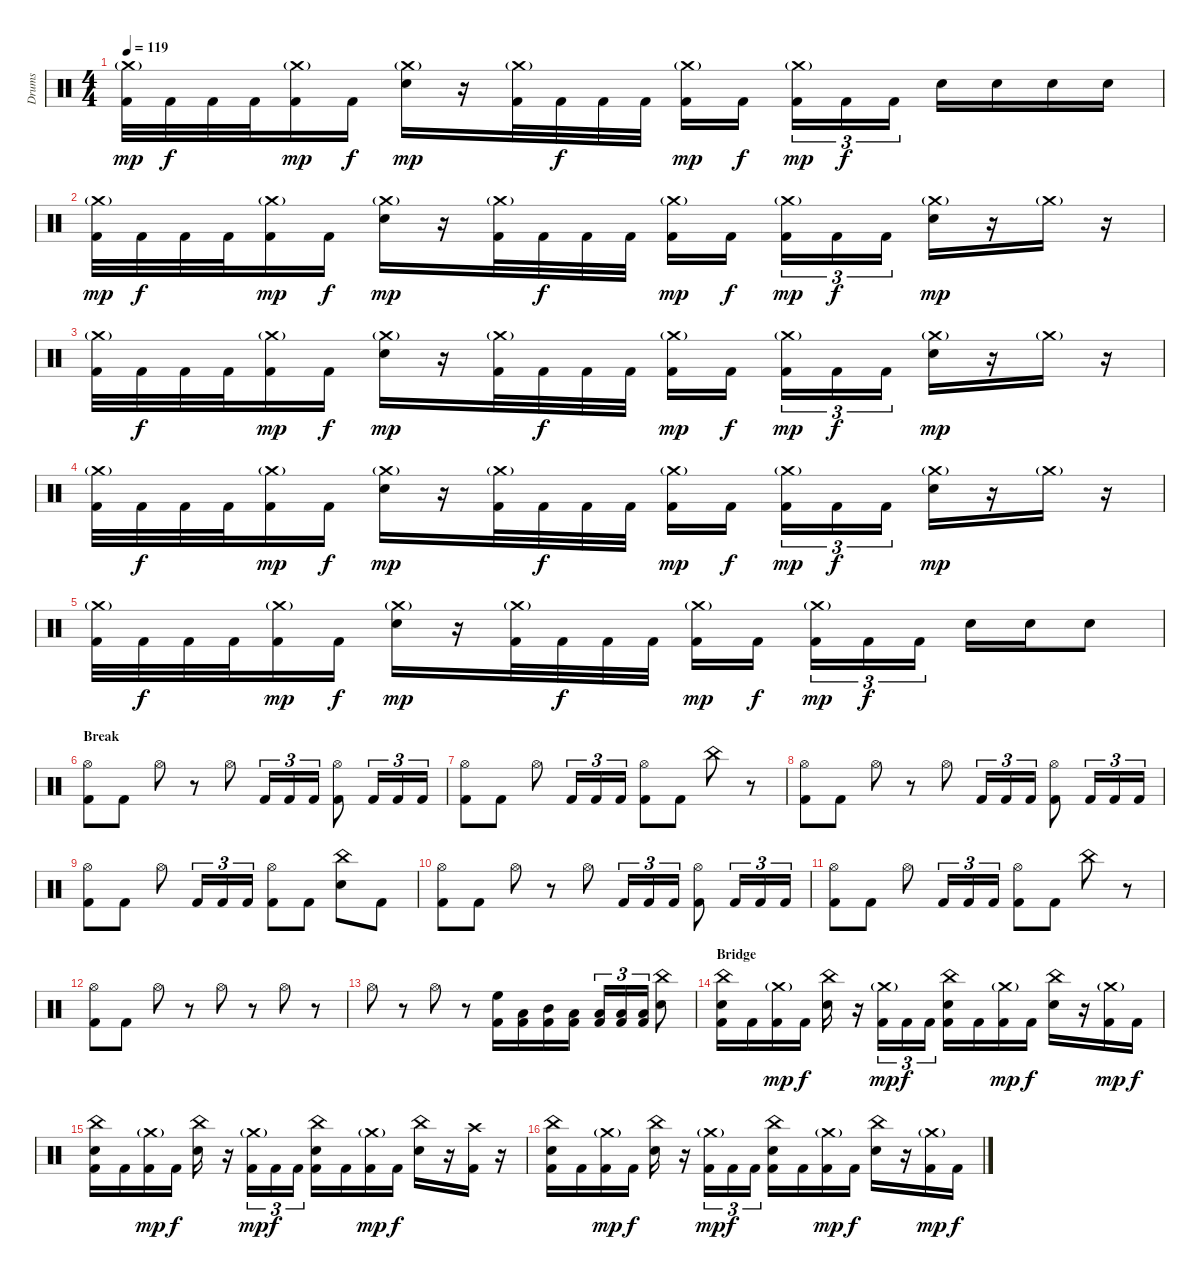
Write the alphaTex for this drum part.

\track ("Drums" "Drums") {instrument percussion}
\staff {score}
\articulation defaults
\ts (4 4)
\tempo 119
\clef neutral
\ks c
("Crash medium (hit)"{g} "Kick (hit) 2").32{dy mp} "Kick (hit) 2".32{dy f} "Kick (hit) 2".32 "Kick (hit) 2".32 ("Crash medium (hit)"{g} "Kick (hit) 2").16{dy mp} "Kick (hit) 2".16{dy f} ("Crash medium (hit)"{g} "Electric Snare (hit)").16{dy mp} r.16 ("Crash medium (hit)"{g} "Kick (hit) 2").32 "Kick (hit) 2".32{dy f} "Kick (hit) 2".32 "Kick (hit) 2".32 ("Crash medium (hit)"{g} "Kick (hit) 2").16{dy mp} "Kick (hit) 2".16{dy f} ("Crash medium (hit)"{g} "Kick (hit) 2").16{tu (3 2) dy mp} "Kick (hit) 2".16{tu (3 2) dy f} "Kick (hit) 2".16{tu (3 2)} "Electric Snare (hit)".16 "Electric Snare (hit)".16 "Electric Snare (hit)".16 "Electric Snare (hit)".16 |
("Crash medium (hit)"{g} "Kick (hit) 2").32{dy mp} "Kick (hit) 2".32{dy f} "Kick (hit) 2".32 "Kick (hit) 2".32 ("Crash medium (hit)"{g} "Kick (hit) 2").16{dy mp} "Kick (hit) 2".16{dy f} ("Crash medium (hit)"{g} "Electric Snare (hit)").16{dy mp} r.16 ("Crash medium (hit)"{g} "Kick (hit) 2").32 "Kick (hit) 2".32{dy f} "Kick (hit) 2".32 "Kick (hit) 2".32 ("Crash medium (hit)"{g} "Kick (hit) 2").16{dy mp} "Kick (hit) 2".16{dy f} ("Crash medium (hit)"{g} "Kick (hit) 2").16{tu (3 2) dy mp} "Kick (hit) 2".16{tu (3 2) dy f} "Kick (hit) 2".16{tu (3 2)} ("Crash medium (hit)"{g} "Electric Snare (hit)").16{dy mp} r.16 "Crash medium (hit)"{g}.16 r.16 |
("Crash medium (hit)"{g} "Kick (hit) 2").32 "Kick (hit) 2".32{dy f} "Kick (hit) 2".32 "Kick (hit) 2".32 ("Crash medium (hit)"{g} "Kick (hit) 2").16{dy mp} "Kick (hit) 2".16{dy f} ("Crash medium (hit)"{g} "Electric Snare (hit)").16{dy mp} r.16 ("Crash medium (hit)"{g} "Kick (hit) 2").32 "Kick (hit) 2".32{dy f} "Kick (hit) 2".32 "Kick (hit) 2".32 ("Crash medium (hit)"{g} "Kick (hit) 2").16{dy mp} "Kick (hit) 2".16{dy f} ("Crash medium (hit)"{g} "Kick (hit) 2").16{tu (3 2) dy mp} "Kick (hit) 2".16{tu (3 2) dy f} "Kick (hit) 2".16{tu (3 2)} ("Crash medium (hit)"{g} "Electric Snare (hit)").16{dy mp} r.16 "Crash medium (hit)"{g}.16 r.16 |
("Crash medium (hit)"{g} "Kick (hit) 2").32 "Kick (hit) 2".32{dy f} "Kick (hit) 2".32 "Kick (hit) 2".32 ("Crash medium (hit)"{g} "Kick (hit) 2").16{dy mp} "Kick (hit) 2".16{dy f} ("Crash medium (hit)"{g} "Electric Snare (hit)").16{dy mp} r.16 ("Crash medium (hit)"{g} "Kick (hit) 2").32 "Kick (hit) 2".32{dy f} "Kick (hit) 2".32 "Kick (hit) 2".32 ("Crash medium (hit)"{g} "Kick (hit) 2").16{dy mp} "Kick (hit) 2".16{dy f} ("Crash medium (hit)"{g} "Kick (hit) 2").16{tu (3 2) dy mp} "Kick (hit) 2".16{tu (3 2) dy f} "Kick (hit) 2".16{tu (3 2)} ("Crash medium (hit)"{g} "Electric Snare (hit)").16{dy mp} r.16 "Crash medium (hit)"{g}.16 r.16 |
("Crash medium (hit)"{g} "Kick (hit) 2").32 "Kick (hit) 2".32{dy f} "Kick (hit) 2".32 "Kick (hit) 2".32 ("Crash medium (hit)"{g} "Kick (hit) 2").16{dy mp} "Kick (hit) 2".16{dy f} ("Crash medium (hit)"{g} "Electric Snare (hit)").16{dy mp} r.16 ("Crash medium (hit)"{g} "Kick (hit) 2").32 "Kick (hit) 2".32{dy f} "Kick (hit) 2".32 "Kick (hit) 2".32 ("Crash medium (hit)"{g} "Kick (hit) 2").16{dy mp} "Kick (hit) 2".16{dy f} ("Crash medium (hit)"{g} "Kick (hit) 2").16{tu (3 2) dy mp} "Kick (hit) 2".16{tu (3 2) dy f} "Kick (hit) 2".16{tu (3 2)} "Electric Snare (hit)".16 "Electric Snare (hit)".16 "Electric Snare (hit)".8 |
\section ("" "Break")
("Hi-Hat (open)" "Kick (hit) 2").8 "Kick (hit) 2".8 "Hi-Hat (open)".8 r.8 "Hi-Hat (open)".8 "Kick (hit) 2".16{tu (3 2)} "Kick (hit) 2".16{tu (3 2)} "Kick (hit) 2".16{tu (3 2)} ("Hi-Hat (open)" "Kick (hit) 2").8 "Kick (hit) 2".16{tu (3 2)} "Kick (hit) 2".16{tu (3 2)} "Kick (hit) 2".16{tu (3 2)} |
("Hi-Hat (open)" "Kick (hit) 2").8 "Kick (hit) 2".8 "Hi-Hat (open)".8 "Kick (hit) 2".16{tu (3 2)} "Kick (hit) 2".16{tu (3 2)} "Kick (hit) 2".16{tu (3 2)} ("Hi-Hat (open)" "Kick (hit) 2").8 "Kick (hit) 2".8 "China (hit)".8 r.8 |
("Hi-Hat (open)" "Kick (hit) 2").8 "Kick (hit) 2".8 "Hi-Hat (open)".8 r.8 "Hi-Hat (open)".8 "Kick (hit) 2".16{tu (3 2)} "Kick (hit) 2".16{tu (3 2)} "Kick (hit) 2".16{tu (3 2)} ("Hi-Hat (open)" "Kick (hit) 2").8 "Kick (hit) 2".16{tu (3 2)} "Kick (hit) 2".16{tu (3 2)} "Kick (hit) 2".16{tu (3 2)} |
("Hi-Hat (open)" "Kick (hit) 2").8 "Kick (hit) 2".8 "Hi-Hat (open)".8 "Kick (hit) 2".16{tu (3 2)} "Kick (hit) 2".16{tu (3 2)} "Kick (hit) 2".16{tu (3 2)} ("Hi-Hat (open)" "Kick (hit) 2").8 "Kick (hit) 2".8 ("China (hit)" "Electric Snare (hit)").8 "Kick (hit) 2".8 |
("Hi-Hat (open)" "Kick (hit) 2").8 "Kick (hit) 2".8 "Hi-Hat (open)".8 r.8 "Hi-Hat (open)".8 "Kick (hit) 2".16{tu (3 2)} "Kick (hit) 2".16{tu (3 2)} "Kick (hit) 2".16{tu (3 2)} ("Hi-Hat (open)" "Kick (hit) 2").8 "Kick (hit) 2".16{tu (3 2)} "Kick (hit) 2".16{tu (3 2)} "Kick (hit) 2".16{tu (3 2)} |
("Hi-Hat (open)" "Kick (hit) 2").8 "Kick (hit) 2".8 "Hi-Hat (open)".8 "Kick (hit) 2".16{tu (3 2)} "Kick (hit) 2".16{tu (3 2)} "Kick (hit) 2".16{tu (3 2)} ("Hi-Hat (open)" "Kick (hit) 2").8 "Kick (hit) 2".8 "China (hit)".8 r.8 |
("Hi-Hat (open)" "Kick (hit) 2").8 "Kick (hit) 2".8 "Hi-Hat (open)".8 r.8 "Hi-Hat (open)".8 r.8 "Hi-Hat (open)".8 r.8 |
"Hi-Hat (open)".8 r.8 "Hi-Hat (open)".8 r.8 ("High Floor Tom (hit)" "Kick (hit) 2").16 ("Low Floor Tom (hit)" "Kick (hit) 2").16 ("Mid Tom (hit)" "Kick (hit) 2").16 ("Low Floor Tom (hit)" "Kick (hit) 2").16 ("Low Tom (hit)" "Kick (hit) 2").16{tu (3 2)} ("Low Floor Tom (hit)" "Kick (hit) 2").16{tu (3 2)} ("Low Tom (hit)" "Kick (hit) 2").16{tu (3 2)} ("China (hit)" "Electric Snare (hit)").8 |
\section ("" "Bridge")
("China (hit)" "Electric Snare (hit)" "Kick (hit) 2").16 "Kick (hit) 2".16 ("Crash medium (hit)"{g} "Kick (hit) 2").16{dy mp} "Kick (hit) 2".16{dy f} ("China (hit)" "Electric Snare (hit)").16 r.16 ("Crash medium (hit)"{g} "Kick (hit) 2").16{tu (3 2) dy mp} "Kick (hit) 2".16{tu (3 2) dy f} "Kick (hit) 2".16{tu (3 2)} ("China (hit)" "Electric Snare (hit)" "Kick (hit) 2").16 "Kick (hit) 2".16 ("Crash medium (hit)"{g} "Kick (hit) 2").16{dy mp} "Kick (hit) 2".16{dy f} ("China (hit)" "Electric Snare (hit)").16 r.16 ("Crash medium (hit)"{g} "Kick (hit) 2").16{dy mp} "Kick (hit) 2".16{dy f} |
("China (hit)" "Electric Snare (hit)" "Kick (hit) 2").16 "Kick (hit) 2".16 ("Crash medium (hit)"{g} "Kick (hit) 2").16{dy mp} "Kick (hit) 2".16{dy f} ("China (hit)" "Electric Snare (hit)").16 r.16 ("Crash medium (hit)"{g} "Kick (hit) 2").16{tu (3 2) dy mp} "Kick (hit) 2".16{tu (3 2) dy f} "Kick (hit) 2".16{tu (3 2)} ("China (hit)" "Electric Snare (hit)" "Kick (hit) 2").16 "Kick (hit) 2".16 ("Crash medium (hit)"{g} "Kick (hit) 2").16{dy mp} "Kick (hit) 2".16{dy f} ("China (hit)" "Electric Snare (hit)").16 r.16 ("Crash high (hit)" "Kick (hit) 2").16 r.16 |
("China (hit)" "Electric Snare (hit)" "Kick (hit) 2").16 "Kick (hit) 2".16 ("Crash medium (hit)"{g} "Kick (hit) 2").16{dy mp} "Kick (hit) 2".16{dy f} ("China (hit)" "Electric Snare (hit)").16 r.16 ("Crash medium (hit)"{g} "Kick (hit) 2").16{tu (3 2) dy mp} "Kick (hit) 2".16{tu (3 2) dy f} "Kick (hit) 2".16{tu (3 2)} ("China (hit)" "Electric Snare (hit)" "Kick (hit) 2").16 "Kick (hit) 2".16 ("Crash medium (hit)"{g} "Kick (hit) 2").16{dy mp} "Kick (hit) 2".16{dy f} ("China (hit)" "Electric Snare (hit)").16 r.16 ("Crash medium (hit)"{g} "Kick (hit) 2").16{dy mp} "Kick (hit) 2".16{dy f}
